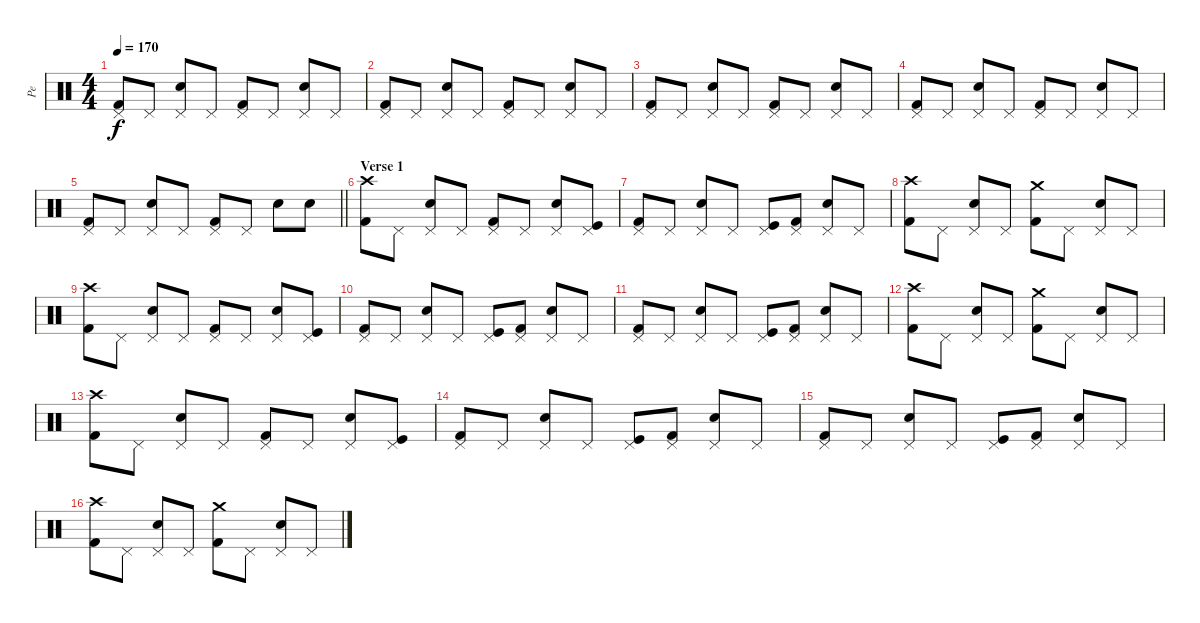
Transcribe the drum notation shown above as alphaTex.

\track ("Pe" "Pe") {instrument percussion}
\staff {score}
\articulation defaults
\ts (4 4)
\tempo 170
\clef neutral
\ks c
("Kick (hit) 2" "Pedal Hi-Hat (hit)").8{dy f} "Pedal Hi-Hat (hit)".8 ("Electric Snare (hit)" "Pedal Hi-Hat (hit)").8 "Pedal Hi-Hat (hit)".8 ("Kick (hit) 2" "Pedal Hi-Hat (hit)").8 "Pedal Hi-Hat (hit)".8 ("Electric Snare (hit)" "Pedal Hi-Hat (hit)").8 "Pedal Hi-Hat (hit)".8 |
("Kick (hit) 2" "Pedal Hi-Hat (hit)").8 "Pedal Hi-Hat (hit)".8 ("Electric Snare (hit)" "Pedal Hi-Hat (hit)").8 "Pedal Hi-Hat (hit)".8 ("Kick (hit) 2" "Pedal Hi-Hat (hit)").8 "Pedal Hi-Hat (hit)".8 ("Electric Snare (hit)" "Pedal Hi-Hat (hit)").8 "Pedal Hi-Hat (hit)".8 |
("Kick (hit) 2" "Pedal Hi-Hat (hit)").8 "Pedal Hi-Hat (hit)".8 ("Electric Snare (hit)" "Pedal Hi-Hat (hit)").8 "Pedal Hi-Hat (hit)".8 ("Kick (hit) 2" "Pedal Hi-Hat (hit)").8 "Pedal Hi-Hat (hit)".8 ("Electric Snare (hit)" "Pedal Hi-Hat (hit)").8 "Pedal Hi-Hat (hit)".8 |
("Kick (hit) 2" "Pedal Hi-Hat (hit)").8 "Pedal Hi-Hat (hit)".8 ("Electric Snare (hit)" "Pedal Hi-Hat (hit)").8 "Pedal Hi-Hat (hit)".8 ("Kick (hit) 2" "Pedal Hi-Hat (hit)").8 "Pedal Hi-Hat (hit)".8 ("Electric Snare (hit)" "Pedal Hi-Hat (hit)").8 "Pedal Hi-Hat (hit)".8 |
\barLineRight lightlight
("Kick (hit) 2" "Pedal Hi-Hat (hit)").8 "Pedal Hi-Hat (hit)".8 ("Electric Snare (hit)" "Pedal Hi-Hat (hit)").8 "Pedal Hi-Hat (hit)".8 ("Kick (hit) 2" "Pedal Hi-Hat (hit)").8 "Pedal Hi-Hat (hit)".8 "Electric Snare (hit)".8 "Electric Snare (hit)".8 |
\section ("" "Verse 1")
("Kick (hit) 2" "Crash high (hit)").8 "Pedal Hi-Hat (hit)".8 ("Electric Snare (hit)" "Pedal Hi-Hat (hit)").8 "Pedal Hi-Hat (hit)".8 ("Kick (hit) 2" "Pedal Hi-Hat (hit)").8 "Pedal Hi-Hat (hit)".8 ("Electric Snare (hit)" "Pedal Hi-Hat (hit)").8 ("Kick (hit)" "Pedal Hi-Hat (hit)").8 |
("Kick (hit) 2" "Pedal Hi-Hat (hit)").8 "Pedal Hi-Hat (hit)".8 ("Electric Snare (hit)" "Pedal Hi-Hat (hit)").8 "Pedal Hi-Hat (hit)".8 ("Kick (hit)" "Pedal Hi-Hat (hit)").8 ("Kick (hit) 2" "Pedal Hi-Hat (hit)").8 ("Electric Snare (hit)" "Pedal Hi-Hat (hit)").8 "Pedal Hi-Hat (hit)".8 |
("Kick (hit) 2" "Crash high (hit)").8 "Pedal Hi-Hat (hit)".8 ("Electric Snare (hit)" "Pedal Hi-Hat (hit)").8 "Pedal Hi-Hat (hit)".8 ("Kick (hit) 2" "Crash medium (hit)").8 "Pedal Hi-Hat (hit)".8 ("Electric Snare (hit)" "Pedal Hi-Hat (hit)").8 "Pedal Hi-Hat (hit)".8 |
("Kick (hit) 2" "Crash high (hit)").8 "Pedal Hi-Hat (hit)".8 ("Electric Snare (hit)" "Pedal Hi-Hat (hit)").8 "Pedal Hi-Hat (hit)".8 ("Kick (hit) 2" "Pedal Hi-Hat (hit)").8 "Pedal Hi-Hat (hit)".8 ("Electric Snare (hit)" "Pedal Hi-Hat (hit)").8 ("Kick (hit)" "Pedal Hi-Hat (hit)").8 |
("Kick (hit) 2" "Pedal Hi-Hat (hit)").8 "Pedal Hi-Hat (hit)".8 ("Electric Snare (hit)" "Pedal Hi-Hat (hit)").8 "Pedal Hi-Hat (hit)".8 ("Kick (hit)" "Pedal Hi-Hat (hit)").8 ("Kick (hit) 2" "Pedal Hi-Hat (hit)").8 ("Electric Snare (hit)" "Pedal Hi-Hat (hit)").8 "Pedal Hi-Hat (hit)".8 |
("Kick (hit) 2" "Pedal Hi-Hat (hit)").8 "Pedal Hi-Hat (hit)".8 ("Electric Snare (hit)" "Pedal Hi-Hat (hit)").8 "Pedal Hi-Hat (hit)".8 ("Kick (hit)" "Pedal Hi-Hat (hit)").8 ("Kick (hit) 2" "Pedal Hi-Hat (hit)").8 ("Electric Snare (hit)" "Pedal Hi-Hat (hit)").8 "Pedal Hi-Hat (hit)".8 |
("Kick (hit) 2" "Crash high (hit)").8 "Pedal Hi-Hat (hit)".8 ("Electric Snare (hit)" "Pedal Hi-Hat (hit)").8 "Pedal Hi-Hat (hit)".8 ("Kick (hit) 2" "Crash medium (hit)").8 "Pedal Hi-Hat (hit)".8 ("Electric Snare (hit)" "Pedal Hi-Hat (hit)").8 "Pedal Hi-Hat (hit)".8 |
("Kick (hit) 2" "Crash high (hit)").8 "Pedal Hi-Hat (hit)".8 ("Electric Snare (hit)" "Pedal Hi-Hat (hit)").8 "Pedal Hi-Hat (hit)".8 ("Kick (hit) 2" "Pedal Hi-Hat (hit)").8 "Pedal Hi-Hat (hit)".8 ("Electric Snare (hit)" "Pedal Hi-Hat (hit)").8 ("Kick (hit)" "Pedal Hi-Hat (hit)").8 |
("Kick (hit) 2" "Pedal Hi-Hat (hit)").8 "Pedal Hi-Hat (hit)".8 ("Electric Snare (hit)" "Pedal Hi-Hat (hit)").8 "Pedal Hi-Hat (hit)".8 ("Kick (hit)" "Pedal Hi-Hat (hit)").8 ("Kick (hit) 2" "Pedal Hi-Hat (hit)").8 ("Electric Snare (hit)" "Pedal Hi-Hat (hit)").8 "Pedal Hi-Hat (hit)".8 |
("Kick (hit) 2" "Pedal Hi-Hat (hit)").8 "Pedal Hi-Hat (hit)".8 ("Electric Snare (hit)" "Pedal Hi-Hat (hit)").8 "Pedal Hi-Hat (hit)".8 ("Kick (hit)" "Pedal Hi-Hat (hit)").8 ("Kick (hit) 2" "Pedal Hi-Hat (hit)").8 ("Electric Snare (hit)" "Pedal Hi-Hat (hit)").8 "Pedal Hi-Hat (hit)".8 |
("Kick (hit) 2" "Crash high (hit)").8 "Pedal Hi-Hat (hit)".8 ("Electric Snare (hit)" "Pedal Hi-Hat (hit)").8 "Pedal Hi-Hat (hit)".8 ("Kick (hit) 2" "Crash medium (hit)").8 "Pedal Hi-Hat (hit)".8 ("Electric Snare (hit)" "Pedal Hi-Hat (hit)").8 "Pedal Hi-Hat (hit)".8
